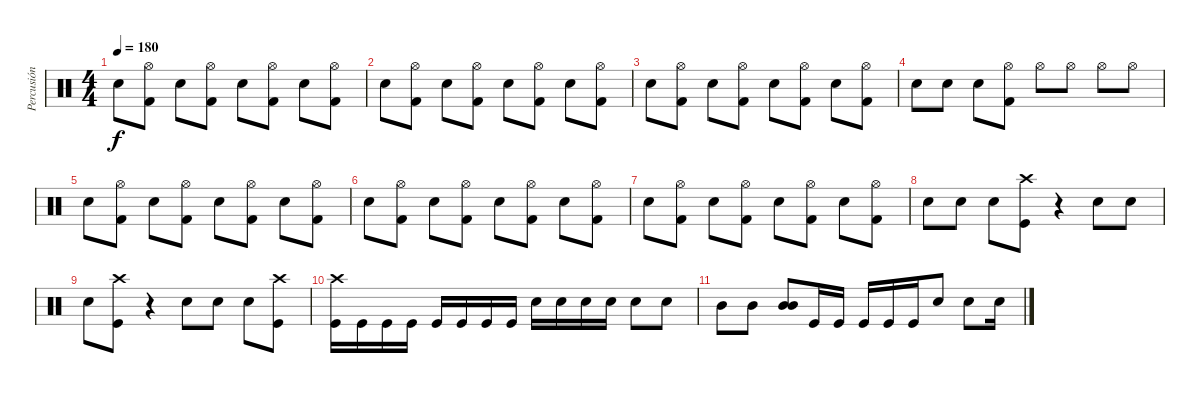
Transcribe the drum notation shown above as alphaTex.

\track ("Percusión" "Percusión") {instrument percussion}
\staff {score}
\articulation defaults
\ts (4 4)
\tempo 180
\clef neutral
\ks c "Electric Snare (hit)".8{dy f}
("Hi-Hat (open)" "Kick (hit) 2").8 "Electric Snare (hit)".8 ("Hi-Hat (open)" "Kick (hit) 2").8 "Electric Snare (hit)".8 ("Hi-Hat (open)" "Kick (hit) 2").8 "Electric Snare (hit)".8 ("Hi-Hat (open)" "Kick (hit) 2").8 |
"Electric Snare (hit)".8 ("Hi-Hat (open)" "Kick (hit) 2").8 "Electric Snare (hit)".8 ("Hi-Hat (open)" "Kick (hit) 2").8 "Electric Snare (hit)".8 ("Hi-Hat (open)" "Kick (hit) 2").8 "Electric Snare (hit)".8 ("Hi-Hat (open)" "Kick (hit) 2").8 |
"Electric Snare (hit)".8 ("Hi-Hat (open)" "Kick (hit) 2").8 "Electric Snare (hit)".8 ("Hi-Hat (open)" "Kick (hit) 2").8 "Electric Snare (hit)".8 ("Hi-Hat (open)" "Kick (hit) 2").8 "Electric Snare (hit)".8 ("Hi-Hat (open)" "Kick (hit) 2").8 |
"Electric Snare (hit)".8 "Electric Snare (hit)".8 "Electric Snare (hit)".8 ("Hi-Hat (open)" "Kick (hit) 2").8 "Hi-Hat (open)".8 "Hi-Hat (open)".8 "Hi-Hat (open)".8 "Hi-Hat (open)".8 |
"Electric Snare (hit)".8 ("Hi-Hat (open)" "Kick (hit) 2").8 "Electric Snare (hit)".8 ("Hi-Hat (open)" "Kick (hit) 2").8 "Electric Snare (hit)".8 ("Hi-Hat (open)" "Kick (hit) 2").8 "Electric Snare (hit)".8 ("Hi-Hat (open)" "Kick (hit) 2").8 |
"Electric Snare (hit)".8 ("Hi-Hat (open)" "Kick (hit) 2").8 "Electric Snare (hit)".8 ("Hi-Hat (open)" "Kick (hit) 2").8 "Electric Snare (hit)".8 ("Hi-Hat (open)" "Kick (hit) 2").8 "Electric Snare (hit)".8 ("Hi-Hat (open)" "Kick (hit) 2").8 |
"Electric Snare (hit)".8 ("Hi-Hat (open)" "Kick (hit) 2").8 "Electric Snare (hit)".8 ("Hi-Hat (open)" "Kick (hit) 2").8 "Electric Snare (hit)".8 ("Hi-Hat (open)" "Kick (hit) 2").8 "Electric Snare (hit)".8 ("Hi-Hat (open)" "Kick (hit) 2").8 |
"Electric Snare (hit)".8 "Electric Snare (hit)".8 "Electric Snare (hit)".8 ("Crash high (hit)" "Kick (hit)").8 r.4 "Electric Snare (hit)".8 "Electric Snare (hit)".8 |
"Electric Snare (hit)".8 ("Crash high (hit)" "Kick (hit)").8 r.4 "Electric Snare (hit)".8 "Electric Snare (hit)".8 "Electric Snare (hit)".8 ("Crash high (hit)" "Kick (hit)").8 |
("Crash high (hit)" "Kick (hit)").16 "Kick (hit)".16 "Kick (hit)".16 "Kick (hit)".16 "Kick (hit)".16 "Kick (hit)".16 "Kick (hit)".16 "Kick (hit)".16 "Electric Snare (hit)".16 "Electric Snare (hit)".16 "Electric Snare (hit)".16 "Electric Snare (hit)".16 "Electric Snare (hit)".8 "Electric Snare (hit)".8 |
"Mid Tom (hit)".8 "Mid Tom (hit)".8 ("Mid Tom (hit)" "Mid Tom (hit)").8 "Kick (hit)".16 "Kick (hit)".16 "Kick (hit)".16 "Kick (hit)".16 "Kick (hit)".16 "Electric Snare (hit)".8 "Electric Snare (hit)".8 "Electric Snare (hit)".16
